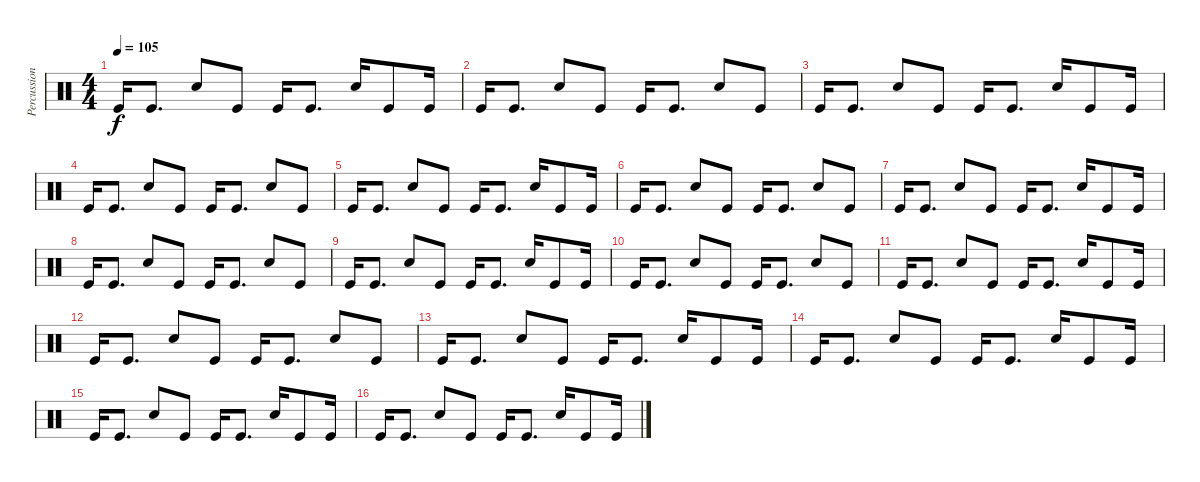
\track ("Percussion" "Percussion") {instrument percussion}
\staff {score}
\articulation defaults
\ts (4 4)
\tempo 105
\clef neutral
\ks c "Kick (hit)".16{dy f} "Kick (hit)".8{d} "Electric Snare (hit)".8 "Kick (hit)".8 "Kick (hit)".16 "Kick (hit)".8{d} "Electric Snare (hit)".16 "Kick (hit)".8 "Kick (hit)".16
|
"Kick (hit)".16 "Kick (hit)".8{d} "Electric Snare (hit)".8 "Kick (hit)".8 "Kick (hit)".16 "Kick (hit)".8{d} "Electric Snare (hit)".8 "Kick (hit)".8 |
"Kick (hit)".16 "Kick (hit)".8{d} "Electric Snare (hit)".8 "Kick (hit)".8 "Kick (hit)".16 "Kick (hit)".8{d} "Electric Snare (hit)".16 "Kick (hit)".8 "Kick (hit)".16 |
"Kick (hit)".16 "Kick (hit)".8{d} "Electric Snare (hit)".8 "Kick (hit)".8 "Kick (hit)".16 "Kick (hit)".8{d} "Electric Snare (hit)".8 "Kick (hit)".8 |
"Kick (hit)".16 "Kick (hit)".8{d} "Electric Snare (hit)".8 "Kick (hit)".8 "Kick (hit)".16 "Kick (hit)".8{d} "Electric Snare (hit)".16 "Kick (hit)".8 "Kick (hit)".16 |
"Kick (hit)".16 "Kick (hit)".8{d} "Electric Snare (hit)".8 "Kick (hit)".8 "Kick (hit)".16 "Kick (hit)".8{d} "Electric Snare (hit)".8 "Kick (hit)".8 |
"Kick (hit)".16 "Kick (hit)".8{d} "Electric Snare (hit)".8 "Kick (hit)".8 "Kick (hit)".16 "Kick (hit)".8{d} "Electric Snare (hit)".16 "Kick (hit)".8 "Kick (hit)".16 |
"Kick (hit)".16 "Kick (hit)".8{d} "Electric Snare (hit)".8 "Kick (hit)".8 "Kick (hit)".16 "Kick (hit)".8{d} "Electric Snare (hit)".8 "Kick (hit)".8 |
"Kick (hit)".16 "Kick (hit)".8{d} "Electric Snare (hit)".8 "Kick (hit)".8 "Kick (hit)".16 "Kick (hit)".8{d} "Electric Snare (hit)".16 "Kick (hit)".8 "Kick (hit)".16 |
"Kick (hit)".16 "Kick (hit)".8{d} "Electric Snare (hit)".8 "Kick (hit)".8 "Kick (hit)".16 "Kick (hit)".8{d} "Electric Snare (hit)".8 "Kick (hit)".8 |
"Kick (hit)".16 "Kick (hit)".8{d} "Electric Snare (hit)".8 "Kick (hit)".8 "Kick (hit)".16 "Kick (hit)".8{d} "Electric Snare (hit)".16 "Kick (hit)".8 "Kick (hit)".16 |
"Kick (hit)".16 "Kick (hit)".8{d} "Electric Snare (hit)".8 "Kick (hit)".8 "Kick (hit)".16 "Kick (hit)".8{d} "Electric Snare (hit)".8 "Kick (hit)".8 |
"Kick (hit)".16 "Kick (hit)".8{d} "Electric Snare (hit)".8 "Kick (hit)".8 "Kick (hit)".16 "Kick (hit)".8{d} "Electric Snare (hit)".16 "Kick (hit)".8 "Kick (hit)".16 |
"Kick (hit)".16 "Kick (hit)".8{d} "Electric Snare (hit)".8 "Kick (hit)".8 "Kick (hit)".16 "Kick (hit)".8{d} "Electric Snare (hit)".16 "Kick (hit)".8 "Kick (hit)".16 |
"Kick (hit)".16 "Kick (hit)".8{d} "Electric Snare (hit)".8 "Kick (hit)".8 "Kick (hit)".16 "Kick (hit)".8{d} "Electric Snare (hit)".16 "Kick (hit)".8 "Kick (hit)".16 |
"Kick (hit)".16 "Kick (hit)".8{d} "Electric Snare (hit)".8 "Kick (hit)".8 "Kick (hit)".16 "Kick (hit)".8{d} "Electric Snare (hit)".16 "Kick (hit)".8 "Kick (hit)".16
